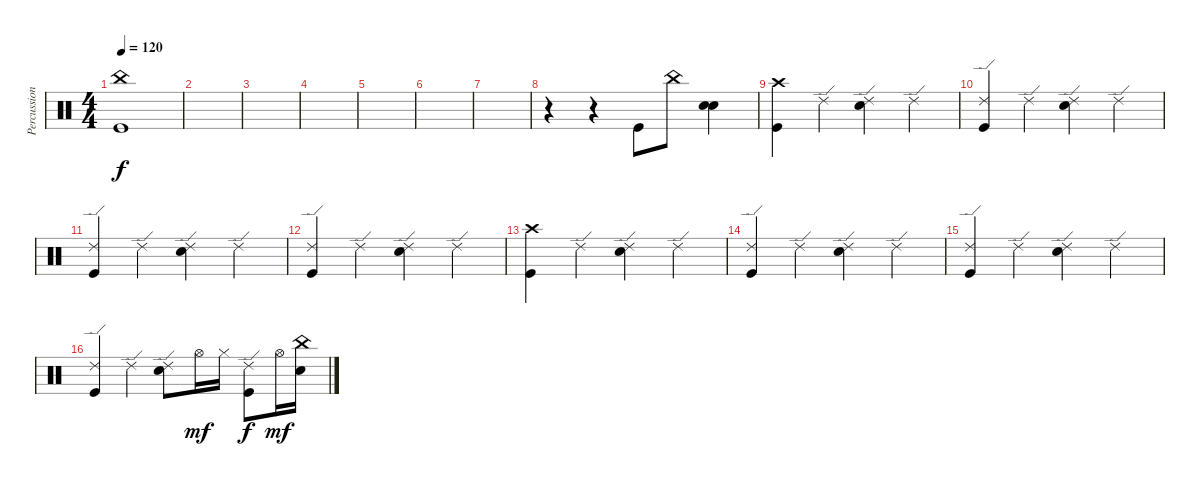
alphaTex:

\track ("Percussions" "Percussion") {instrument percussion}
\staff {score}
\articulation defaults
\ts (4 4)
\tempo 120
\clef neutral
\ks c
("China (hit)" "Kick (hit)").1{dy f} |
|
|
|
|
|
|
r.4 r.4 "Kick (hit)".8 "China (hit)".8 ("Electric Snare (hit)" "Electric Snare (hit)").4{bd 120} |
("Crash high (hit)" "Kick (hit)").4 "Ride (edge) 2".4 ("Ride (edge) 2" "Electric Snare (hit)").4 "Ride (edge) 2".4 |
("Ride (edge) 2" "Kick (hit)").4 "Ride (edge) 2".4 ("Ride (edge) 2" "Electric Snare (hit)").4 "Ride (edge) 2".4 |
("Ride (edge) 2" "Kick (hit)").4 "Ride (edge) 2".4 ("Ride (edge) 2" "Electric Snare (hit)").4 "Ride (edge) 2".4 |
("Ride (edge) 2" "Kick (hit)").4 "Ride (edge) 2".4 ("Ride (edge) 2" "Electric Snare (hit)").4 "Ride (edge) 2".4 |
("Crash high (hit)" "Kick (hit)").4 "Ride (edge) 2".4 ("Ride (edge) 2" "Electric Snare (hit)").4 "Ride (edge) 2".4 |
("Ride (edge) 2" "Kick (hit)").4 "Ride (edge) 2".4 ("Ride (edge) 2" "Electric Snare (hit)").4 "Ride (edge) 2".4 |
("Ride (edge) 2" "Kick (hit)").4 "Ride (edge) 2".4 ("Ride (edge) 2" "Electric Snare (hit)").4 "Ride (edge) 2".4 |
("Ride (edge) 2" "Kick (hit)").4 "Ride (edge) 2".4 ("Ride (edge) 2" "Electric Snare (hit)").8 "Hi-Hat (open)".16{dy mf} "Hi-Hat (closed)".16 ("Ride (edge) 2" "Kick (hit)").8{dy f} "Hi-Hat (open)".16{dy mf} ("China (hit)" "Electric Snare (hit)").16
